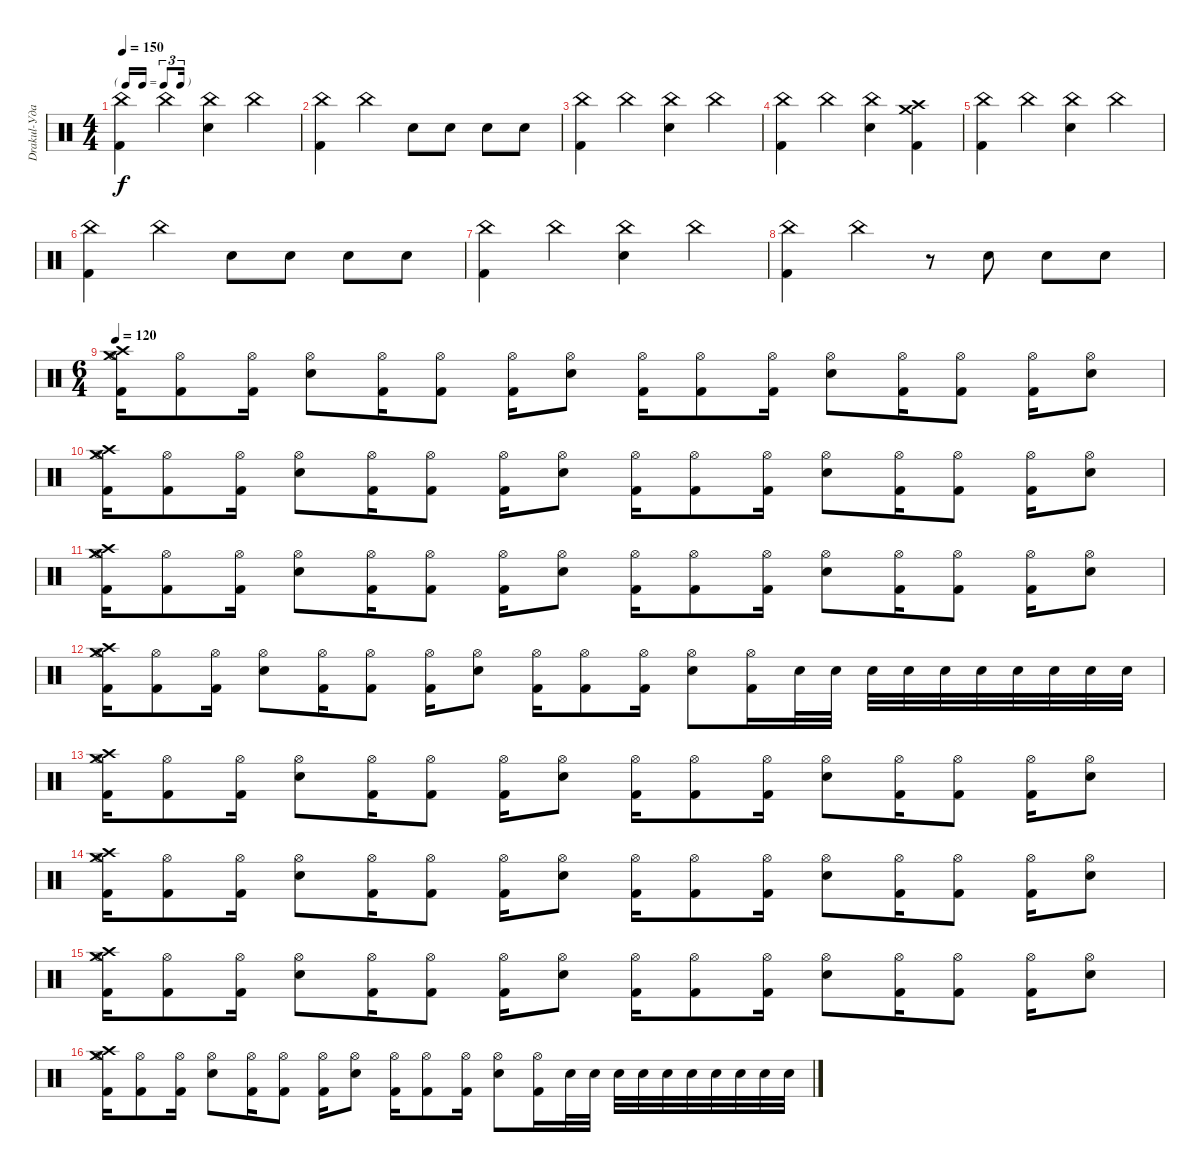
\track ("Drakul-Ударные " "Drakul-Уда") {instrument percussion}
\staff {score}
\articulation defaults
\ts (4 4)
\tf triplet16th
\tempo 150
\clef neutral
\ks c
("Kick (hit) 2" "China (hit)").4{dy f} "China (hit)".4 ("Electric Snare (hit)" "China (hit)").4 "China (hit)".4 |
("Kick (hit) 2" "China (hit)").4 "China (hit)".4 "Electric Snare (hit)".8 "Electric Snare (hit)".8 "Electric Snare (hit)".8 "Electric Snare (hit)".8 |
("Kick (hit) 2" "China (hit)").4 "China (hit)".4 ("Electric Snare (hit)" "China (hit)").4 "China (hit)".4 |
("Kick (hit) 2" "China (hit)").4 "China (hit)".4 ("Electric Snare (hit)" "China (hit)").4 ("Kick (hit) 2" "Crash high (hit)" "Crash medium (hit)").4 |
("Kick (hit) 2" "China (hit)").4 "China (hit)".4 ("Electric Snare (hit)" "China (hit)").4 "China (hit)".4 |
("Kick (hit) 2" "China (hit)").4 "China (hit)".4 "Electric Snare (hit)".8 "Electric Snare (hit)".8 "Electric Snare (hit)".8 "Electric Snare (hit)".8 |
("Kick (hit) 2" "China (hit)").4 "China (hit)".4 ("Electric Snare (hit)" "China (hit)").4 "China (hit)".4 |
("Kick (hit) 2" "China (hit)").4 "China (hit)".4 r.8 "Electric Snare (hit)".8 "Electric Snare (hit)".8 "Electric Snare (hit)".8 |
\ts (6 4)
\tempo 120
("Kick (hit) 2" "Hi-Hat (open)" "Crash high (hit)" "Crash medium (hit)").16 ("Kick (hit) 2" "Hi-Hat (open)").8 ("Kick (hit) 2" "Hi-Hat (open)").16 ("Electric Snare (hit)" "Hi-Hat (open)").8 ("Kick (hit) 2" "Hi-Hat (open)").16 ("Kick (hit) 2" "Hi-Hat (open)").8 ("Kick (hit) 2" "Hi-Hat (open)").16 ("Electric Snare (hit)" "Hi-Hat (open)").8 ("Kick (hit) 2" "Hi-Hat (open)").16 ("Kick (hit) 2" "Hi-Hat (open)").8 ("Kick (hit) 2" "Hi-Hat (open)").16 ("Electric Snare (hit)" "Hi-Hat (open)").8 ("Kick (hit) 2" "Hi-Hat (open)").16 ("Kick (hit) 2" "Hi-Hat (open)").8 ("Kick (hit) 2" "Hi-Hat (open)").16 ("Electric Snare (hit)" "Hi-Hat (open)").8 |
("Kick (hit) 2" "Hi-Hat (open)" "Crash high (hit)" "Crash medium (hit)").16 ("Kick (hit) 2" "Hi-Hat (open)").8 ("Kick (hit) 2" "Hi-Hat (open)").16 ("Electric Snare (hit)" "Hi-Hat (open)").8 ("Kick (hit) 2" "Hi-Hat (open)").16 ("Kick (hit) 2" "Hi-Hat (open)").8 ("Kick (hit) 2" "Hi-Hat (open)").16 ("Electric Snare (hit)" "Hi-Hat (open)").8 ("Kick (hit) 2" "Hi-Hat (open)").16 ("Kick (hit) 2" "Hi-Hat (open)").8 ("Kick (hit) 2" "Hi-Hat (open)").16 ("Electric Snare (hit)" "Hi-Hat (open)").8 ("Kick (hit) 2" "Hi-Hat (open)").16 ("Kick (hit) 2" "Hi-Hat (open)").8 ("Kick (hit) 2" "Hi-Hat (open)").16 ("Electric Snare (hit)" "Hi-Hat (open)").8 |
("Kick (hit) 2" "Hi-Hat (open)" "Crash high (hit)" "Crash medium (hit)").16 ("Kick (hit) 2" "Hi-Hat (open)").8 ("Kick (hit) 2" "Hi-Hat (open)").16 ("Electric Snare (hit)" "Hi-Hat (open)").8 ("Kick (hit) 2" "Hi-Hat (open)").16 ("Kick (hit) 2" "Hi-Hat (open)").8 ("Kick (hit) 2" "Hi-Hat (open)").16 ("Electric Snare (hit)" "Hi-Hat (open)").8 ("Kick (hit) 2" "Hi-Hat (open)").16 ("Kick (hit) 2" "Hi-Hat (open)").8 ("Kick (hit) 2" "Hi-Hat (open)").16 ("Electric Snare (hit)" "Hi-Hat (open)").8 ("Kick (hit) 2" "Hi-Hat (open)").16 ("Kick (hit) 2" "Hi-Hat (open)").8 ("Kick (hit) 2" "Hi-Hat (open)").16 ("Electric Snare (hit)" "Hi-Hat (open)").8 |
("Kick (hit) 2" "Hi-Hat (open)" "Crash high (hit)" "Crash medium (hit)").16 ("Kick (hit) 2" "Hi-Hat (open)").8 ("Kick (hit) 2" "Hi-Hat (open)").16 ("Electric Snare (hit)" "Hi-Hat (open)").8 ("Kick (hit) 2" "Hi-Hat (open)").16 ("Kick (hit) 2" "Hi-Hat (open)").8 ("Kick (hit) 2" "Hi-Hat (open)").16 ("Electric Snare (hit)" "Hi-Hat (open)").8 ("Kick (hit) 2" "Hi-Hat (open)").16 ("Kick (hit) 2" "Hi-Hat (open)").8 ("Kick (hit) 2" "Hi-Hat (open)").16 ("Electric Snare (hit)" "Hi-Hat (open)").8 ("Kick (hit) 2" "Hi-Hat (open)").16 "Electric Snare (hit)".32 "Electric Snare (hit)".32 "Electric Snare (hit)".32 "Electric Snare (hit)".32 "Electric Snare (hit)".32 "Electric Snare (hit)".32 "Electric Snare (hit)".32 "Electric Snare (hit)".32 "Electric Snare (hit)".32 "Electric Snare (hit)".32 |
("Kick (hit) 2" "Hi-Hat (open)" "Crash high (hit)" "Crash medium (hit)").16 ("Kick (hit) 2" "Hi-Hat (open)").8 ("Kick (hit) 2" "Hi-Hat (open)").16 ("Electric Snare (hit)" "Hi-Hat (open)").8 ("Kick (hit) 2" "Hi-Hat (open)").16 ("Kick (hit) 2" "Hi-Hat (open)").8 ("Kick (hit) 2" "Hi-Hat (open)").16 ("Electric Snare (hit)" "Hi-Hat (open)").8 ("Kick (hit) 2" "Hi-Hat (open)").16 ("Kick (hit) 2" "Hi-Hat (open)").8 ("Kick (hit) 2" "Hi-Hat (open)").16 ("Electric Snare (hit)" "Hi-Hat (open)").8 ("Kick (hit) 2" "Hi-Hat (open)").16 ("Kick (hit) 2" "Hi-Hat (open)").8 ("Kick (hit) 2" "Hi-Hat (open)").16 ("Electric Snare (hit)" "Hi-Hat (open)").8 |
("Kick (hit) 2" "Hi-Hat (open)" "Crash high (hit)" "Crash medium (hit)").16 ("Kick (hit) 2" "Hi-Hat (open)").8 ("Kick (hit) 2" "Hi-Hat (open)").16 ("Electric Snare (hit)" "Hi-Hat (open)").8 ("Kick (hit) 2" "Hi-Hat (open)").16 ("Kick (hit) 2" "Hi-Hat (open)").8 ("Kick (hit) 2" "Hi-Hat (open)").16 ("Electric Snare (hit)" "Hi-Hat (open)").8 ("Kick (hit) 2" "Hi-Hat (open)").16 ("Kick (hit) 2" "Hi-Hat (open)").8 ("Kick (hit) 2" "Hi-Hat (open)").16 ("Electric Snare (hit)" "Hi-Hat (open)").8 ("Kick (hit) 2" "Hi-Hat (open)").16 ("Kick (hit) 2" "Hi-Hat (open)").8 ("Kick (hit) 2" "Hi-Hat (open)").16 ("Electric Snare (hit)" "Hi-Hat (open)").8 |
("Kick (hit) 2" "Hi-Hat (open)" "Crash high (hit)" "Crash medium (hit)").16 ("Kick (hit) 2" "Hi-Hat (open)").8 ("Kick (hit) 2" "Hi-Hat (open)").16 ("Electric Snare (hit)" "Hi-Hat (open)").8 ("Kick (hit) 2" "Hi-Hat (open)").16 ("Kick (hit) 2" "Hi-Hat (open)").8 ("Kick (hit) 2" "Hi-Hat (open)").16 ("Electric Snare (hit)" "Hi-Hat (open)").8 ("Kick (hit) 2" "Hi-Hat (open)").16 ("Kick (hit) 2" "Hi-Hat (open)").8 ("Kick (hit) 2" "Hi-Hat (open)").16 ("Electric Snare (hit)" "Hi-Hat (open)").8 ("Kick (hit) 2" "Hi-Hat (open)").16 ("Kick (hit) 2" "Hi-Hat (open)").8 ("Kick (hit) 2" "Hi-Hat (open)").16 ("Electric Snare (hit)" "Hi-Hat (open)").8 |
("Kick (hit) 2" "Hi-Hat (open)" "Crash high (hit)" "Crash medium (hit)").16 ("Kick (hit) 2" "Hi-Hat (open)").8 ("Kick (hit) 2" "Hi-Hat (open)").16 ("Electric Snare (hit)" "Hi-Hat (open)").8 ("Kick (hit) 2" "Hi-Hat (open)").16 ("Kick (hit) 2" "Hi-Hat (open)").8 ("Kick (hit) 2" "Hi-Hat (open)").16 ("Electric Snare (hit)" "Hi-Hat (open)").8 ("Kick (hit) 2" "Hi-Hat (open)").16 ("Kick (hit) 2" "Hi-Hat (open)").8 ("Kick (hit) 2" "Hi-Hat (open)").16 ("Electric Snare (hit)" "Hi-Hat (open)").8 ("Kick (hit) 2" "Hi-Hat (open)").16 "Electric Snare (hit)".32 "Electric Snare (hit)".32 "Electric Snare (hit)".32 "Electric Snare (hit)".32 "Electric Snare (hit)".32 "Electric Snare (hit)".32 "Electric Snare (hit)".32 "Electric Snare (hit)".32 "Electric Snare (hit)".32 "Electric Snare (hit)".32
